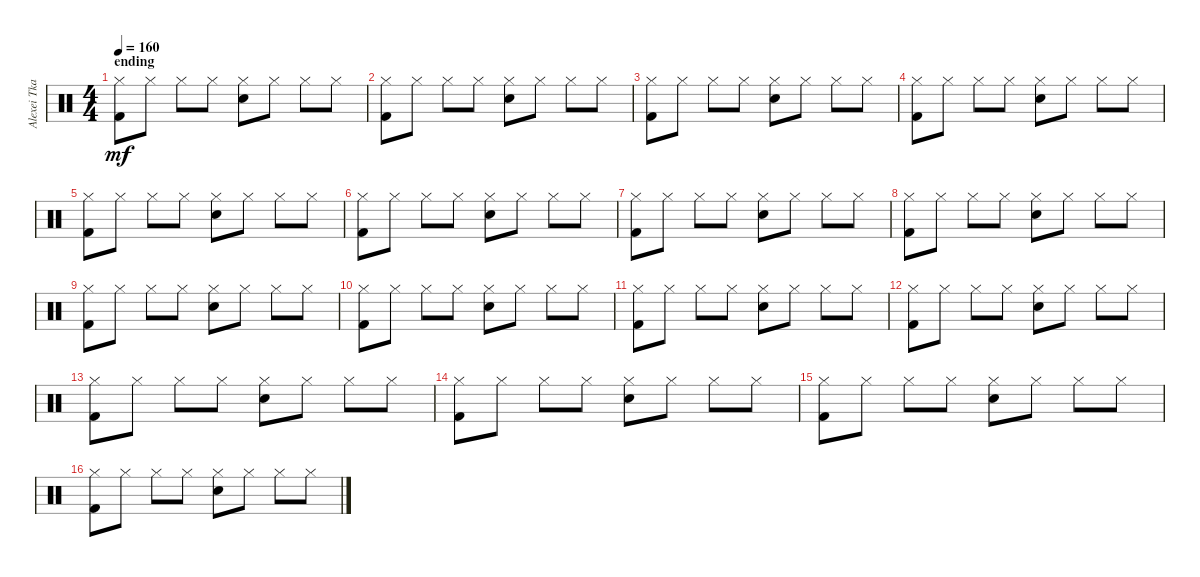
\track ("Alexei Tkachevskiy " "Alexei Tka") {instrument percussion}
\staff {score}
\articulation defaults
\ts (4 4)
\section ("" "ending")
\tempo 160
\clef neutral
\ks c
("Hi-Hat (closed)" "Kick (hit) 2").8{dy mf} "Hi-Hat (closed)".8 "Hi-Hat (closed)".8 "Hi-Hat (closed)".8 ("Hi-Hat (closed)" "Snare (hit) 2").8 "Hi-Hat (closed)".8 "Hi-Hat (closed)".8 "Hi-Hat (closed)".8 |
("Hi-Hat (closed)" "Kick (hit) 2").8 "Hi-Hat (closed)".8 "Hi-Hat (closed)".8 "Hi-Hat (closed)".8 ("Hi-Hat (closed)" "Snare (hit) 2").8 "Hi-Hat (closed)".8 "Hi-Hat (closed)".8 "Hi-Hat (closed)".8 |
("Hi-Hat (closed)" "Kick (hit) 2").8 "Hi-Hat (closed)".8 "Hi-Hat (closed)".8 "Hi-Hat (closed)".8 ("Hi-Hat (closed)" "Snare (hit) 2").8 "Hi-Hat (closed)".8 "Hi-Hat (closed)".8 "Hi-Hat (closed)".8 |
("Hi-Hat (closed)" "Kick (hit) 2").8 "Hi-Hat (closed)".8 "Hi-Hat (closed)".8 "Hi-Hat (closed)".8 ("Hi-Hat (closed)" "Snare (hit) 2").8 "Hi-Hat (closed)".8 "Hi-Hat (closed)".8 "Hi-Hat (closed)".8 |
("Hi-Hat (closed)" "Kick (hit) 2").8 "Hi-Hat (closed)".8 "Hi-Hat (closed)".8 "Hi-Hat (closed)".8 ("Hi-Hat (closed)" "Snare (hit) 2").8 "Hi-Hat (closed)".8 "Hi-Hat (closed)".8 "Hi-Hat (closed)".8 |
("Hi-Hat (closed)" "Kick (hit) 2").8 "Hi-Hat (closed)".8 "Hi-Hat (closed)".8 "Hi-Hat (closed)".8 ("Hi-Hat (closed)" "Snare (hit) 2").8 "Hi-Hat (closed)".8 "Hi-Hat (closed)".8 "Hi-Hat (closed)".8 |
("Hi-Hat (closed)" "Kick (hit) 2").8 "Hi-Hat (closed)".8 "Hi-Hat (closed)".8 "Hi-Hat (closed)".8 ("Hi-Hat (closed)" "Snare (hit) 2").8 "Hi-Hat (closed)".8 "Hi-Hat (closed)".8 "Hi-Hat (closed)".8 |
("Hi-Hat (closed)" "Kick (hit) 2").8 "Hi-Hat (closed)".8 "Hi-Hat (closed)".8 "Hi-Hat (closed)".8 ("Hi-Hat (closed)" "Snare (hit) 2").8 "Hi-Hat (closed)".8 "Hi-Hat (closed)".8 "Hi-Hat (closed)".8 |
("Hi-Hat (closed)" "Kick (hit) 2").8 "Hi-Hat (closed)".8 "Hi-Hat (closed)".8 "Hi-Hat (closed)".8 ("Hi-Hat (closed)" "Snare (hit) 2").8 "Hi-Hat (closed)".8 "Hi-Hat (closed)".8 "Hi-Hat (closed)".8 |
("Hi-Hat (closed)" "Kick (hit) 2").8 "Hi-Hat (closed)".8 "Hi-Hat (closed)".8 "Hi-Hat (closed)".8 ("Hi-Hat (closed)" "Snare (hit) 2").8 "Hi-Hat (closed)".8 "Hi-Hat (closed)".8 "Hi-Hat (closed)".8 |
("Hi-Hat (closed)" "Kick (hit) 2").8 "Hi-Hat (closed)".8 "Hi-Hat (closed)".8 "Hi-Hat (closed)".8 ("Hi-Hat (closed)" "Snare (hit) 2").8 "Hi-Hat (closed)".8 "Hi-Hat (closed)".8 "Hi-Hat (closed)".8 |
("Hi-Hat (closed)" "Kick (hit) 2").8 "Hi-Hat (closed)".8 "Hi-Hat (closed)".8 "Hi-Hat (closed)".8 ("Hi-Hat (closed)" "Snare (hit) 2").8 "Hi-Hat (closed)".8 "Hi-Hat (closed)".8 "Hi-Hat (closed)".8 |
("Hi-Hat (closed)" "Kick (hit) 2").8 "Hi-Hat (closed)".8 "Hi-Hat (closed)".8 "Hi-Hat (closed)".8 ("Hi-Hat (closed)" "Snare (hit) 2").8 "Hi-Hat (closed)".8 "Hi-Hat (closed)".8 "Hi-Hat (closed)".8 |
("Hi-Hat (closed)" "Kick (hit) 2").8 "Hi-Hat (closed)".8 "Hi-Hat (closed)".8 "Hi-Hat (closed)".8 ("Hi-Hat (closed)" "Snare (hit) 2").8 "Hi-Hat (closed)".8 "Hi-Hat (closed)".8 "Hi-Hat (closed)".8 |
("Hi-Hat (closed)" "Kick (hit) 2").8 "Hi-Hat (closed)".8 "Hi-Hat (closed)".8 "Hi-Hat (closed)".8 ("Hi-Hat (closed)" "Snare (hit) 2").8 "Hi-Hat (closed)".8 "Hi-Hat (closed)".8 "Hi-Hat (closed)".8 |
("Hi-Hat (closed)" "Kick (hit) 2").8 "Hi-Hat (closed)".8 "Hi-Hat (closed)".8 "Hi-Hat (closed)".8 ("Hi-Hat (closed)" "Snare (hit) 2").8 "Hi-Hat (closed)".8 "Hi-Hat (closed)".8 "Hi-Hat (closed)".8
